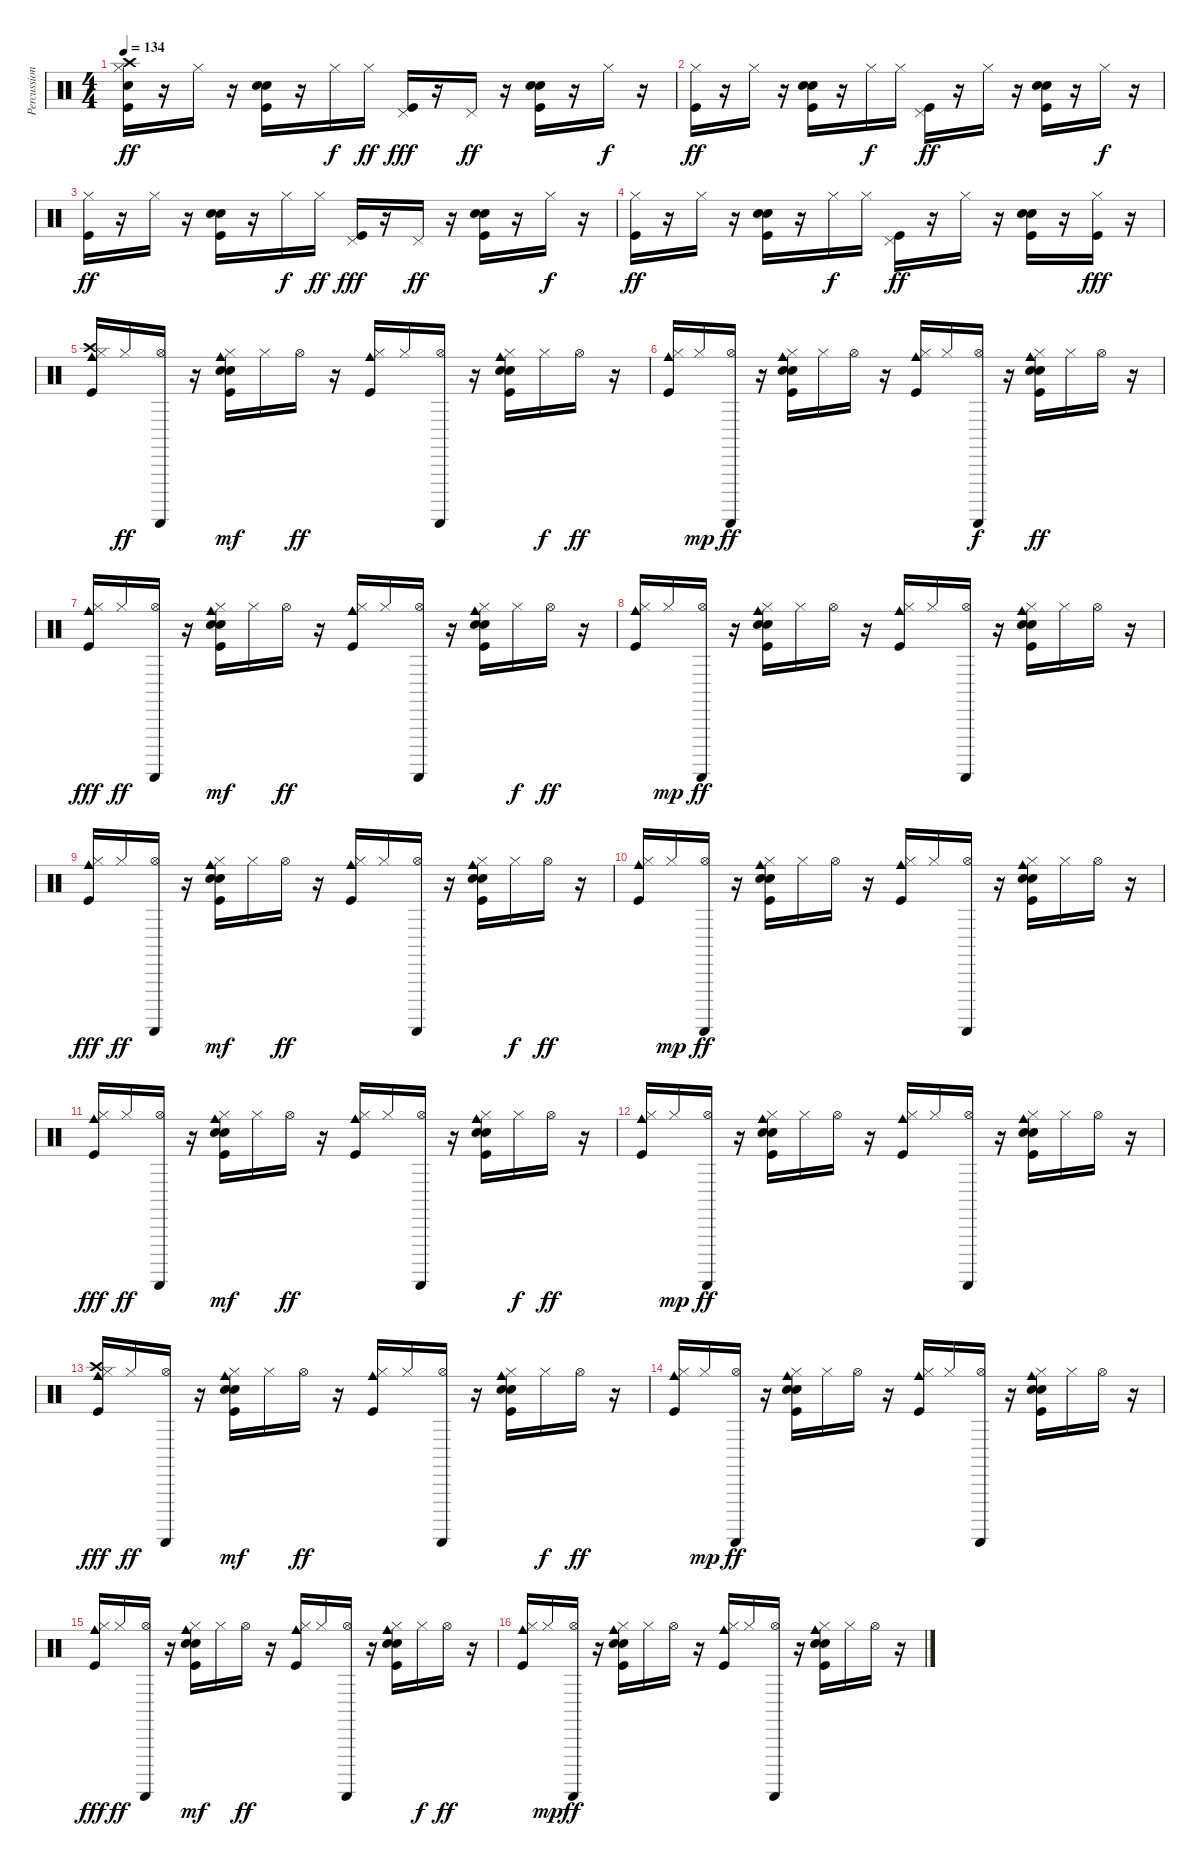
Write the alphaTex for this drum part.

\track ("Percussion" "Percussion") {instrument percussion}
\staff {score}
\articulation defaults
\ts (4 4)
\tempo 134
\clef neutral
\ks c
("Electric Snare (hit)" "Kick (hit)" "Hi-Hat (closed)" "Crash high (hit)").16{dy ff} r.16 "Hi-Hat (closed)".16 r.16 ("Kick (hit)" "Hand Clap (hit)" "Electric Snare (hit)").16 r.16 "Hi-Hat (closed)".16{dy f} "Hi-Hat (closed)".16{dy ff} ("Kick (hit)" "Pedal Hi-Hat (hit)").16{dy fff} r.16 "Pedal Hi-Hat (hit)".16{dy ff} r.16 ("Kick (hit)" "Hand Clap (hit)" "Electric Snare (hit)").16 r.16 "Hi-Hat (closed)".16{dy f} r.16 |
("Kick (hit)" "Hi-Hat (closed)").16{dy ff} r.16 "Hi-Hat (closed)".16 r.16 ("Kick (hit)" "Hand Clap (hit)" "Electric Snare (hit)").16 r.16 "Hi-Hat (closed)".16{dy f} "Hi-Hat (closed)".16 ("Kick (hit)" "Pedal Hi-Hat (hit)").16{dy ff} r.16 "Hi-Hat (closed)".16 r.16 ("Kick (hit)" "Hand Clap (hit)" "Electric Snare (hit)").16 r.16 "Hi-Hat (closed)".16{dy f} r.16 |
("Kick (hit)" "Hi-Hat (closed)").16{dy ff} r.16 "Hi-Hat (closed)".16 r.16 ("Kick (hit)" "Hand Clap (hit)" "Electric Snare (hit)").16 r.16 "Hi-Hat (closed)".16{dy f} "Hi-Hat (closed)".16{dy ff} ("Kick (hit)" "Pedal Hi-Hat (hit)").16{dy fff} r.16 "Pedal Hi-Hat (hit)".16{dy ff} r.16 ("Kick (hit)" "Hand Clap (hit)" "Electric Snare (hit)").16 r.16 "Hi-Hat (closed)".16{dy f} r.16 |
("Kick (hit)" "Hi-Hat (closed)").16{dy ff} r.16 "Hi-Hat (closed)".16 r.16 ("Kick (hit)" "Hand Clap (hit)" "Electric Snare (hit)").16 r.16 "Hi-Hat (closed)".16{dy f} "Hi-Hat (closed)".16 ("Kick (hit)" "Pedal Hi-Hat (hit)").16{dy ff} r.16 "Hi-Hat (closed)".16 r.16 ("Kick (hit)" "Hand Clap (hit)" "Electric Snare (hit)").16 r.16 ("Kick (hit)" "Hi-Hat (closed)").16{dy fff} r.16 |
("Kick (hit)" "Hi-Hat (closed)" "Crash high (hit)" "Cowbell medium (hit)").16 "Hi-Hat (closed)".16{dy ff} ("Hi-Hat (open)" "Guiro (scrap-return)").16 r.16 ("Kick (hit)" "Hand Clap (hit)" "Electric Snare (hit)" "Hi-Hat (closed)" "Cowbell medium (hit)").16{dy mf} "Hi-Hat (closed)".16 "Hi-Hat (open)".16{dy ff} r.16 ("Kick (hit)" "Hi-Hat (closed)" "Cowbell medium (hit)").16 "Hi-Hat (closed)".16 ("Hi-Hat (open)" "Guiro (scrap-return)").16 r.16 ("Kick (hit)" "Hand Clap (hit)" "Electric Snare (hit)" "Hi-Hat (closed)" "Cowbell medium (hit)").16 "Hi-Hat (closed)".16{dy f} "Hi-Hat (open)".16{dy ff} r.16 |
("Kick (hit)" "Hi-Hat (closed)" "Cowbell medium (hit)").16 "Hi-Hat (closed)".16{dy mp} ("Hi-Hat (open)" "Guiro (scrap-return)").16{dy ff} r.16 ("Kick (hit)" "Hand Clap (hit)" "Electric Snare (hit)" "Hi-Hat (closed)" "Cowbell medium (hit)").16 "Hi-Hat (closed)".16 "Hi-Hat (open)".16 r.16 ("Kick (hit)" "Hi-Hat (closed)" "Cowbell medium (hit)").16 "Hi-Hat (closed)".16 ("Hi-Hat (open)" "Guiro (scrap-return)").16{dy f} r.16 ("Kick (hit)" "Hand Clap (hit)" "Electric Snare (hit)" "Hi-Hat (closed)" "Cowbell medium (hit)").16{dy ff} "Hi-Hat (closed)".16 "Hi-Hat (open)".16 r.16 |
("Kick (hit)" "Hi-Hat (closed)" "Cowbell medium (hit)").16{dy fff} "Hi-Hat (closed)".16{dy ff} ("Hi-Hat (open)" "Guiro (scrap-return)").16 r.16 ("Kick (hit)" "Hand Clap (hit)" "Electric Snare (hit)" "Hi-Hat (closed)" "Cowbell medium (hit)").16{dy mf} "Hi-Hat (closed)".16 "Hi-Hat (open)".16{dy ff} r.16 ("Kick (hit)" "Hi-Hat (closed)" "Cowbell medium (hit)").16 "Hi-Hat (closed)".16 ("Hi-Hat (open)" "Guiro (scrap-return)").16 r.16 ("Kick (hit)" "Hand Clap (hit)" "Electric Snare (hit)" "Hi-Hat (closed)" "Cowbell medium (hit)").16 "Hi-Hat (closed)".16{dy f} "Hi-Hat (open)".16{dy ff} r.16 |
("Kick (hit)" "Hi-Hat (closed)" "Cowbell medium (hit)").16 "Hi-Hat (closed)".16{dy mp} ("Hi-Hat (open)" "Guiro (scrap-return)").16{dy ff} r.16 ("Kick (hit)" "Hand Clap (hit)" "Electric Snare (hit)" "Hi-Hat (closed)" "Cowbell medium (hit)").16 "Hi-Hat (closed)".16 "Hi-Hat (open)".16 r.16 ("Kick (hit)" "Hi-Hat (closed)" "Cowbell medium (hit)").16 "Hi-Hat (closed)".16 ("Hi-Hat (open)" "Guiro (scrap-return)").16 r.16 ("Kick (hit)" "Hand Clap (hit)" "Electric Snare (hit)" "Hi-Hat (closed)" "Cowbell medium (hit)").16 "Hi-Hat (closed)".16 "Hi-Hat (open)".16 r.16 |
("Kick (hit)" "Hi-Hat (closed)" "Cowbell medium (hit)").16{dy fff} "Hi-Hat (closed)".16{dy ff} ("Hi-Hat (open)" "Guiro (scrap-return)").16 r.16 ("Kick (hit)" "Hand Clap (hit)" "Electric Snare (hit)" "Hi-Hat (closed)" "Cowbell medium (hit)").16{dy mf} "Hi-Hat (closed)".16 "Hi-Hat (open)".16{dy ff} r.16 ("Kick (hit)" "Hi-Hat (closed)" "Cowbell medium (hit)").16 "Hi-Hat (closed)".16 ("Hi-Hat (open)" "Guiro (scrap-return)").16 r.16 ("Kick (hit)" "Hand Clap (hit)" "Electric Snare (hit)" "Hi-Hat (closed)" "Cowbell medium (hit)").16 "Hi-Hat (closed)".16{dy f} "Hi-Hat (open)".16{dy ff} r.16 |
("Kick (hit)" "Hi-Hat (closed)" "Cowbell medium (hit)").16 "Hi-Hat (closed)".16{dy mp} ("Hi-Hat (open)" "Guiro (scrap-return)").16{dy ff} r.16 ("Kick (hit)" "Hand Clap (hit)" "Electric Snare (hit)" "Hi-Hat (closed)" "Cowbell medium (hit)").16 "Hi-Hat (closed)".16 "Hi-Hat (open)".16 r.16 ("Kick (hit)" "Hi-Hat (closed)" "Cowbell medium (hit)").16 "Hi-Hat (closed)".16 ("Hi-Hat (open)" "Guiro (scrap-return)").16 r.16 ("Kick (hit)" "Hand Clap (hit)" "Electric Snare (hit)" "Hi-Hat (closed)" "Cowbell medium (hit)").16 "Hi-Hat (closed)".16 "Hi-Hat (open)".16 r.16 |
("Kick (hit)" "Hi-Hat (closed)" "Cowbell medium (hit)").16{dy fff} "Hi-Hat (closed)".16{dy ff} ("Hi-Hat (open)" "Guiro (scrap-return)").16 r.16 ("Kick (hit)" "Hand Clap (hit)" "Electric Snare (hit)" "Hi-Hat (closed)" "Cowbell medium (hit)").16{dy mf} "Hi-Hat (closed)".16 "Hi-Hat (open)".16{dy ff} r.16 ("Kick (hit)" "Hi-Hat (closed)" "Cowbell medium (hit)").16 "Hi-Hat (closed)".16 ("Hi-Hat (open)" "Guiro (scrap-return)").16 r.16 ("Kick (hit)" "Hand Clap (hit)" "Electric Snare (hit)" "Hi-Hat (closed)" "Cowbell medium (hit)").16 "Hi-Hat (closed)".16{dy f} "Hi-Hat (open)".16{dy ff} r.16 |
("Kick (hit)" "Hi-Hat (closed)" "Cowbell medium (hit)").16 "Hi-Hat (closed)".16{dy mp} ("Hi-Hat (open)" "Guiro (scrap-return)").16{dy ff} r.16 ("Kick (hit)" "Hand Clap (hit)" "Electric Snare (hit)" "Hi-Hat (closed)" "Cowbell medium (hit)").16 "Hi-Hat (closed)".16 "Hi-Hat (open)".16 r.16 ("Kick (hit)" "Hi-Hat (closed)" "Cowbell medium (hit)").16 "Hi-Hat (closed)".16 ("Hi-Hat (open)" "Guiro (scrap-return)").16 r.16 ("Kick (hit)" "Hand Clap (hit)" "Electric Snare (hit)" "Hi-Hat (closed)" "Cowbell medium (hit)").16 "Hi-Hat (closed)".16 "Hi-Hat (open)".16 r.16 |
("Kick (hit)" "Hi-Hat (closed)" "Crash high (hit)" "Cowbell medium (hit)").16{dy fff} "Hi-Hat (closed)".16{dy ff} ("Hi-Hat (open)" "Guiro (scrap-return)").16 r.16 ("Kick (hit)" "Hand Clap (hit)" "Electric Snare (hit)" "Hi-Hat (closed)" "Cowbell medium (hit)").16{dy mf} "Hi-Hat (closed)".16 "Hi-Hat (open)".16{dy ff} r.16 ("Kick (hit)" "Hi-Hat (closed)" "Cowbell medium (hit)").16 "Hi-Hat (closed)".16 ("Hi-Hat (open)" "Guiro (scrap-return)").16 r.16 ("Kick (hit)" "Hand Clap (hit)" "Electric Snare (hit)" "Hi-Hat (closed)" "Cowbell medium (hit)").16 "Hi-Hat (closed)".16{dy f} "Hi-Hat (open)".16{dy ff} r.16 |
("Kick (hit)" "Hi-Hat (closed)" "Cowbell medium (hit)").16 "Hi-Hat (closed)".16{dy mp} ("Hi-Hat (open)" "Guiro (scrap-return)").16{dy ff} r.16 ("Kick (hit)" "Hand Clap (hit)" "Electric Snare (hit)" "Hi-Hat (closed)" "Cowbell medium (hit)").16 "Hi-Hat (closed)".16 "Hi-Hat (open)".16 r.16 ("Kick (hit)" "Hi-Hat (closed)" "Cowbell medium (hit)").16 "Hi-Hat (closed)".16 ("Hi-Hat (open)" "Guiro (scrap-return)").16 r.16 ("Kick (hit)" "Hand Clap (hit)" "Electric Snare (hit)" "Hi-Hat (closed)" "Cowbell medium (hit)").16 "Hi-Hat (closed)".16 "Hi-Hat (open)".16 r.16 |
("Kick (hit)" "Hi-Hat (closed)" "Cowbell medium (hit)").16{dy fff} "Hi-Hat (closed)".16{dy ff} ("Hi-Hat (open)" "Guiro (scrap-return)").16 r.16 ("Kick (hit)" "Hand Clap (hit)" "Electric Snare (hit)" "Hi-Hat (closed)" "Cowbell medium (hit)").16{dy mf} "Hi-Hat (closed)".16 "Hi-Hat (open)".16{dy ff} r.16 ("Kick (hit)" "Hi-Hat (closed)" "Cowbell medium (hit)").16 "Hi-Hat (closed)".16 ("Hi-Hat (open)" "Guiro (scrap-return)").16 r.16 ("Kick (hit)" "Hand Clap (hit)" "Electric Snare (hit)" "Hi-Hat (closed)" "Cowbell medium (hit)").16 "Hi-Hat (closed)".16{dy f} "Hi-Hat (open)".16{dy ff} r.16 |
("Kick (hit)" "Hi-Hat (closed)" "Cowbell medium (hit)").16 "Hi-Hat (closed)".16{dy mp} ("Hi-Hat (open)" "Guiro (scrap-return)").16{dy ff} r.16 ("Kick (hit)" "Hand Clap (hit)" "Electric Snare (hit)" "Hi-Hat (closed)" "Cowbell medium (hit)").16 "Hi-Hat (closed)".16 "Hi-Hat (open)".16 r.16 ("Kick (hit)" "Hi-Hat (closed)" "Cowbell medium (hit)").16 "Hi-Hat (closed)".16 ("Hi-Hat (open)" "Guiro (scrap-return)").16 r.16 ("Kick (hit)" "Hand Clap (hit)" "Electric Snare (hit)" "Hi-Hat (closed)" "Cowbell medium (hit)").16 "Hi-Hat (closed)".16 "Hi-Hat (open)".16 r.16
